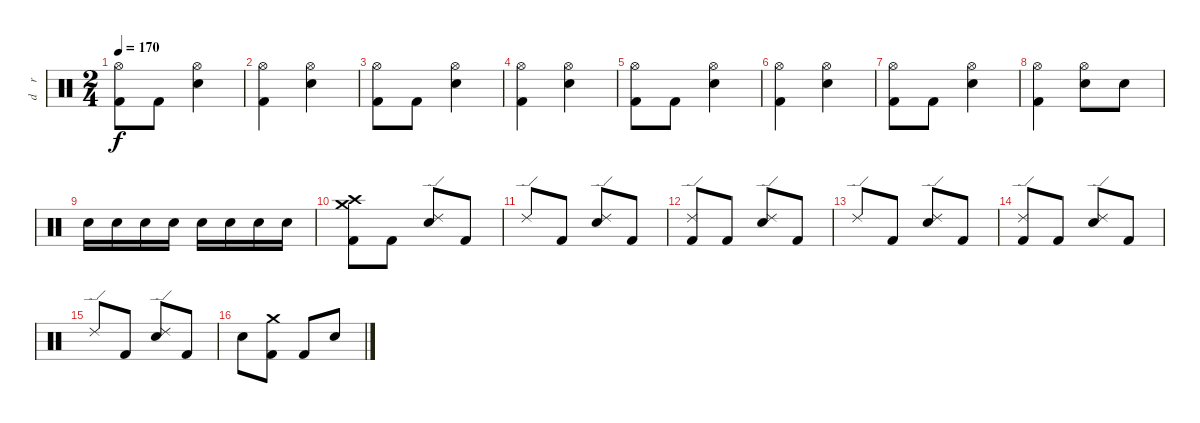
\track ("d    r     u     m    s" "d    r    ") {instrument percussion}
\staff {score}
\articulation defaults
\ts (2 4)
\tempo 170
\clef neutral
\ks c
("Hi-Hat (open)" "Kick (hit) 2").8{dy f} "Kick (hit) 2".8 ("Hi-Hat (open)" "Electric Snare (hit)").4 |
("Hi-Hat (open)" "Kick (hit) 2").4 ("Hi-Hat (open)" "Electric Snare (hit)").4 |
("Hi-Hat (open)" "Kick (hit) 2").8 "Kick (hit) 2".8 ("Hi-Hat (open)" "Electric Snare (hit)").4 |
("Hi-Hat (open)" "Kick (hit) 2").4 ("Hi-Hat (open)" "Electric Snare (hit)").4 |
("Hi-Hat (open)" "Kick (hit) 2").8 "Kick (hit) 2".8 ("Hi-Hat (open)" "Electric Snare (hit)").4 |
("Hi-Hat (open)" "Kick (hit) 2").4 ("Hi-Hat (open)" "Electric Snare (hit)").4 |
("Hi-Hat (open)" "Kick (hit) 2").8 "Kick (hit) 2".8 ("Hi-Hat (open)" "Electric Snare (hit)").4 |
("Hi-Hat (open)" "Kick (hit) 2").4 ("Hi-Hat (open)" "Electric Snare (hit)").8 "Electric Snare (hit)".8 |
"Electric Snare (hit)".16 "Electric Snare (hit)".16 "Electric Snare (hit)".16 "Electric Snare (hit)".16 "Electric Snare (hit)".16 "Electric Snare (hit)".16 "Electric Snare (hit)".16 "Electric Snare (hit)".16 |
("Crash high (hit)" "Crash medium (hit)" "Kick (hit) 2").8 "Kick (hit) 2".8 ("Ride (edge) 2" "Electric Snare (hit)").8 "Kick (hit) 2".8 |
"Ride (edge) 2".8 "Kick (hit) 2".8 ("Ride (edge) 2" "Electric Snare (hit)").8 "Kick (hit) 2".8 |
("Ride (edge) 2" "Kick (hit) 2").8 "Kick (hit) 2".8 ("Ride (edge) 2" "Electric Snare (hit)").8 "Kick (hit) 2".8 |
"Ride (edge) 2".8 "Kick (hit) 2".8 ("Ride (edge) 2" "Electric Snare (hit)").8 "Kick (hit) 2".8 |
("Ride (edge) 2" "Kick (hit) 2").8 "Kick (hit) 2".8 ("Ride (edge) 2" "Electric Snare (hit)").8 "Kick (hit) 2".8 |
"Ride (edge) 2".8 "Kick (hit) 2".8 ("Ride (edge) 2" "Electric Snare (hit)").8 "Kick (hit) 2".8 |
"Electric Snare (hit)".8 ("Crash medium (hit)" "Kick (hit) 2").8 "Kick (hit) 2".8 "Electric Snare (hit)".8
